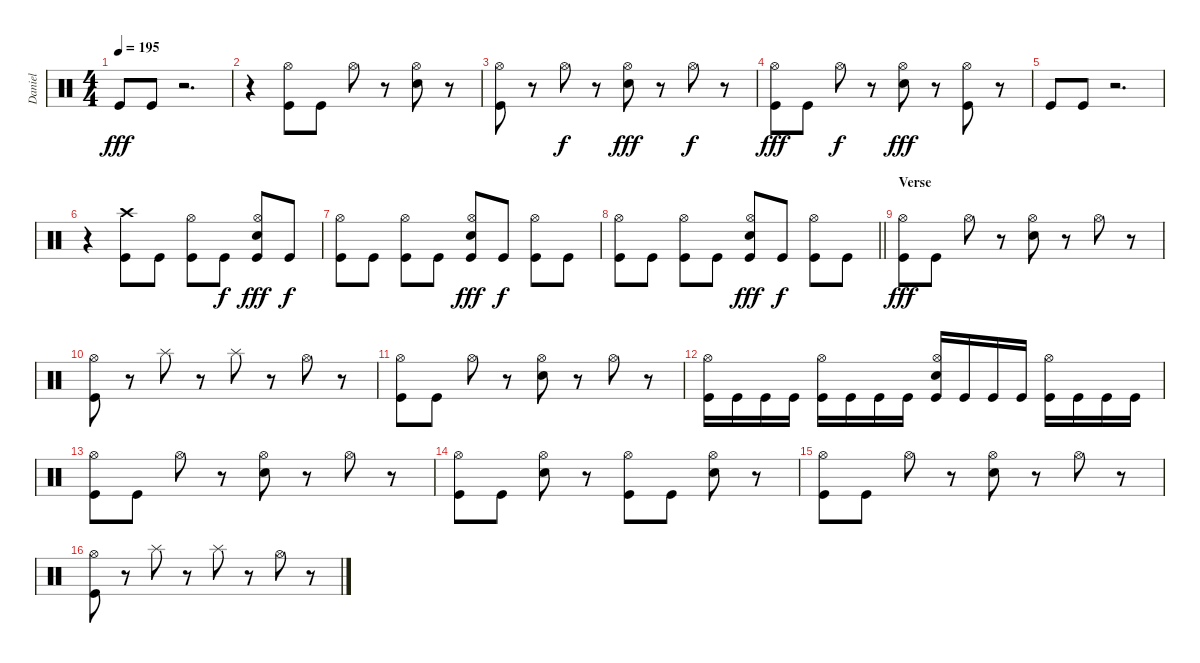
\track ("Daniel" "Daniel") {instrument percussion}
\staff {score}
\articulation defaults
\ts (4 4)
\tempo 195
\clef neutral
\ks c "Kick (hit)".8{dy fff} "Kick (hit)".8
r.2{d} |
r.4 ("Hi-Hat (open)" "Kick (hit)").8 "Kick (hit)".8 "Hi-Hat (open)".8 r.8 ("Hi-Hat (open)" "Snare (hit) 2").8 r.8 |
("Hi-Hat (open)" "Kick (hit)").8 r.8 "Hi-Hat (open)".8{dy f} r.8 ("Hi-Hat (open)" "Snare (hit) 2").8{dy fff} r.8 "Hi-Hat (open)".8{dy f} r.8 |
("Hi-Hat (open)" "Kick (hit)").8{dy fff} "Kick (hit)".8 "Hi-Hat (open)".8{dy f} r.8 ("Hi-Hat (open)" "Snare (hit) 2").8{dy fff} r.8 ("Hi-Hat (open)" "Kick (hit)").8 r.8 |
"Kick (hit)".8 "Kick (hit)".8 r.2{d} |
r.4 ("Crash high (hit)" "Kick (hit)").8 "Kick (hit)".8 ("Hi-Hat (open)" "Kick (hit)").8 "Kick (hit)".8{dy f} ("Hi-Hat (open)" "Snare (hit) 2" "Kick (hit)").8{dy fff} "Kick (hit)".8{dy f} |
("Hi-Hat (open)" "Kick (hit)").8 "Kick (hit)".8 ("Hi-Hat (open)" "Kick (hit)").8 "Kick (hit)".8 ("Hi-Hat (open)" "Snare (hit) 2" "Kick (hit)").8{dy fff} "Kick (hit)".8{dy f} ("Hi-Hat (open)" "Kick (hit)").8 "Kick (hit)".8 |
\barLineRight lightlight
("Hi-Hat (open)" "Kick (hit)").8 "Kick (hit)".8 ("Hi-Hat (open)" "Kick (hit)").8 "Kick (hit)".8 ("Hi-Hat (open)" "Snare (hit) 2" "Kick (hit)").8{dy fff} "Kick (hit)".8{dy f} ("Hi-Hat (open)" "Kick (hit)").8 "Kick (hit)".8 |
\section ("" "Verse")
("Hi-Hat (open)" "Kick (hit)").8{dy fff} "Kick (hit)".8 "Hi-Hat (open)".8 r.8 ("Hi-Hat (open)" "Snare (hit) 2").8 r.8 "Hi-Hat (open)".8 r.8 |
("Hi-Hat (open)" "Kick (hit)").8 r.8 "Splash (hit)".8 r.8 "Splash (hit)".8 r.8 "Hi-Hat (open)".8 r.8 |
("Hi-Hat (open)" "Kick (hit)").8 "Kick (hit)".8 "Hi-Hat (open)".8 r.8 ("Hi-Hat (open)" "Snare (hit) 2").8 r.8 "Hi-Hat (open)".8 r.8 |
("Hi-Hat (open)" "Kick (hit)").16 "Kick (hit)".16 "Kick (hit)".16 "Kick (hit)".16 ("Hi-Hat (open)" "Kick (hit)").16 "Kick (hit)".16 "Kick (hit)".16 "Kick (hit)".16 ("Hi-Hat (open)" "Snare (hit) 2" "Kick (hit)").16 "Kick (hit)".16 "Kick (hit)".16 "Kick (hit)".16 ("Hi-Hat (open)" "Kick (hit)").16 "Kick (hit)".16 "Kick (hit)".16 "Kick (hit)".16 |
("Hi-Hat (open)" "Kick (hit)").8 "Kick (hit)".8 "Hi-Hat (open)".8 r.8 ("Hi-Hat (open)" "Snare (hit) 2").8 r.8 "Hi-Hat (open)".8 r.8 |
("Hi-Hat (open)" "Kick (hit)").8 "Kick (hit)".8 ("Hi-Hat (open)" "Snare (hit) 2").8 r.8 ("Hi-Hat (open)" "Kick (hit)").8 "Kick (hit)".8 ("Hi-Hat (open)" "Snare (hit) 2").8 r.8 |
("Hi-Hat (open)" "Kick (hit)").8 "Kick (hit)".8 "Hi-Hat (open)".8 r.8 ("Hi-Hat (open)" "Snare (hit) 2").8 r.8 "Hi-Hat (open)".8 r.8 |
("Hi-Hat (open)" "Kick (hit)").8 r.8 "Splash (hit)".8 r.8 "Splash (hit)".8 r.8 "Hi-Hat (open)".8 r.8
